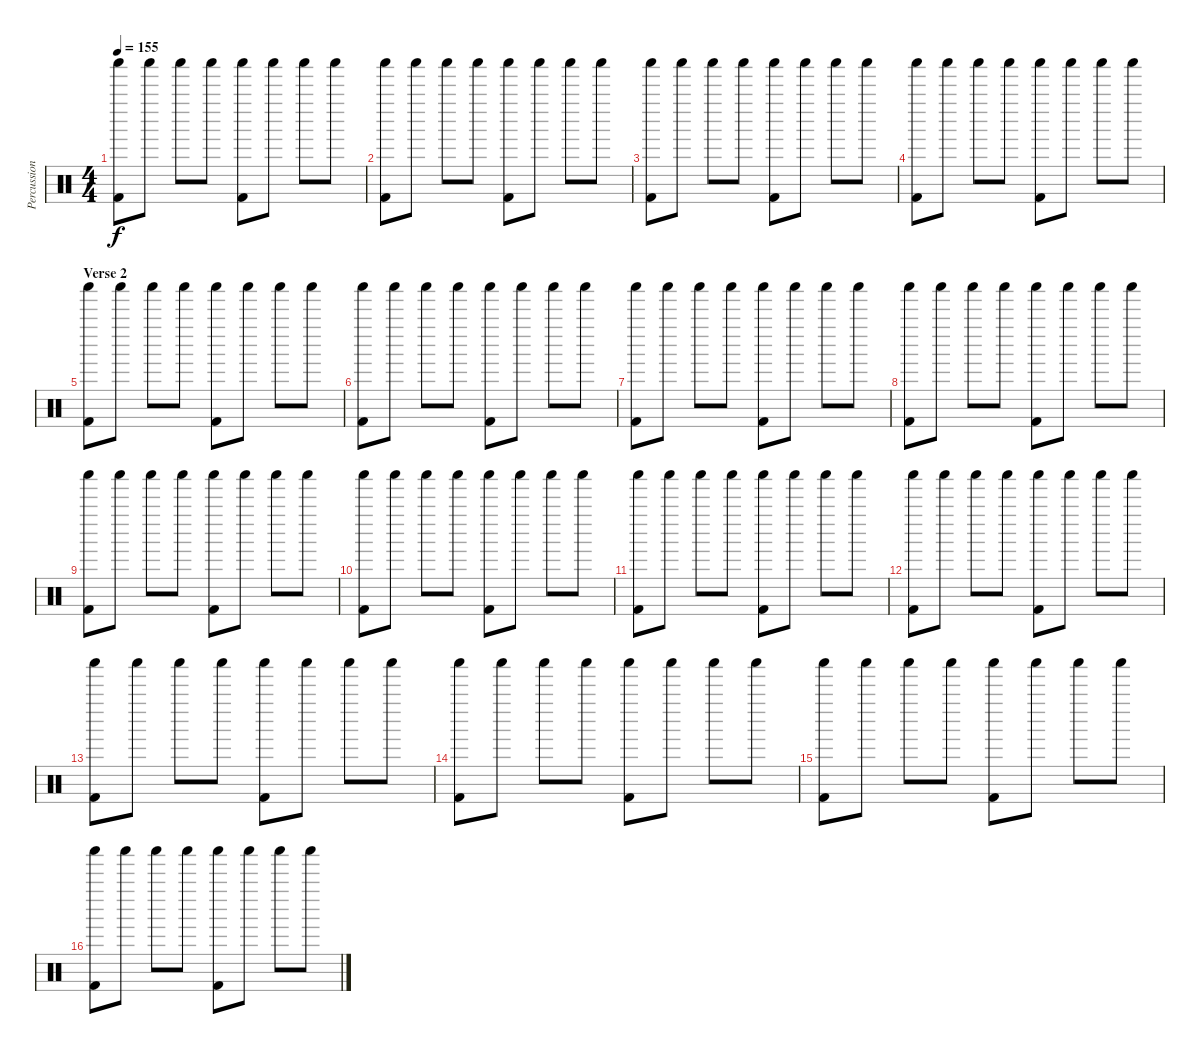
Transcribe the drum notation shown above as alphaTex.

\track ("Percussion" "Percussion") {instrument percussion}
\staff {score}
\articulation defaults
\ts (4 4)
\tempo 155
\clef neutral
\ks c
("Kick (hit) 2" "Shaker (hit)").8{dy f} "Shaker (hit)".8 "Shaker (hit)".8 "Shaker (hit)".8 ("Kick (hit) 2" "Shaker (hit)").8 "Shaker (hit)".8 "Shaker (hit)".8 "Shaker (hit)".8 |
("Kick (hit) 2" "Shaker (hit)").8 "Shaker (hit)".8 "Shaker (hit)".8 "Shaker (hit)".8 ("Kick (hit) 2" "Shaker (hit)").8 "Shaker (hit)".8 "Shaker (hit)".8 "Shaker (hit)".8 |
("Kick (hit) 2" "Shaker (hit)").8 "Shaker (hit)".8 "Shaker (hit)".8 "Shaker (hit)".8 ("Kick (hit) 2" "Shaker (hit)").8 "Shaker (hit)".8 "Shaker (hit)".8 "Shaker (hit)".8 |
("Kick (hit) 2" "Shaker (hit)").8 "Shaker (hit)".8 "Shaker (hit)".8 "Shaker (hit)".8 ("Kick (hit) 2" "Shaker (hit)").8 "Shaker (hit)".8 "Shaker (hit)".8 "Shaker (hit)".8 |
\section ("" "Verse 2")
("Kick (hit) 2" "Shaker (hit)").8 "Shaker (hit)".8 "Shaker (hit)".8 "Shaker (hit)".8 ("Kick (hit) 2" "Shaker (hit)").8 "Shaker (hit)".8 "Shaker (hit)".8 "Shaker (hit)".8 |
("Kick (hit) 2" "Shaker (hit)").8 "Shaker (hit)".8 "Shaker (hit)".8 "Shaker (hit)".8 ("Kick (hit) 2" "Shaker (hit)").8 "Shaker (hit)".8 "Shaker (hit)".8 "Shaker (hit)".8 |
("Kick (hit) 2" "Shaker (hit)").8 "Shaker (hit)".8 "Shaker (hit)".8 "Shaker (hit)".8 ("Kick (hit) 2" "Shaker (hit)").8 "Shaker (hit)".8 "Shaker (hit)".8 "Shaker (hit)".8 |
("Kick (hit) 2" "Shaker (hit)").8 "Shaker (hit)".8 "Shaker (hit)".8 "Shaker (hit)".8 ("Kick (hit) 2" "Shaker (hit)").8 "Shaker (hit)".8 "Shaker (hit)".8 "Shaker (hit)".8 |
("Kick (hit) 2" "Shaker (hit)").8 "Shaker (hit)".8 "Shaker (hit)".8 "Shaker (hit)".8 ("Kick (hit) 2" "Shaker (hit)").8 "Shaker (hit)".8 "Shaker (hit)".8 "Shaker (hit)".8 |
("Kick (hit) 2" "Shaker (hit)").8 "Shaker (hit)".8 "Shaker (hit)".8 "Shaker (hit)".8 ("Kick (hit) 2" "Shaker (hit)").8 "Shaker (hit)".8 "Shaker (hit)".8 "Shaker (hit)".8 |
("Kick (hit) 2" "Shaker (hit)").8 "Shaker (hit)".8 "Shaker (hit)".8 "Shaker (hit)".8 ("Kick (hit) 2" "Shaker (hit)").8 "Shaker (hit)".8 "Shaker (hit)".8 "Shaker (hit)".8 |
("Kick (hit) 2" "Shaker (hit)").8 "Shaker (hit)".8 "Shaker (hit)".8 "Shaker (hit)".8 ("Kick (hit) 2" "Shaker (hit)").8 "Shaker (hit)".8 "Shaker (hit)".8 "Shaker (hit)".8 |
("Kick (hit) 2" "Shaker (hit)").8 "Shaker (hit)".8 "Shaker (hit)".8 "Shaker (hit)".8 ("Kick (hit) 2" "Shaker (hit)").8 "Shaker (hit)".8 "Shaker (hit)".8 "Shaker (hit)".8 |
("Kick (hit) 2" "Shaker (hit)").8 "Shaker (hit)".8 "Shaker (hit)".8 "Shaker (hit)".8 ("Kick (hit) 2" "Shaker (hit)").8 "Shaker (hit)".8 "Shaker (hit)".8 "Shaker (hit)".8 |
("Kick (hit) 2" "Shaker (hit)").8 "Shaker (hit)".8 "Shaker (hit)".8 "Shaker (hit)".8 ("Kick (hit) 2" "Shaker (hit)").8 "Shaker (hit)".8 "Shaker (hit)".8 "Shaker (hit)".8 |
("Kick (hit) 2" "Shaker (hit)").8 "Shaker (hit)".8 "Shaker (hit)".8 "Shaker (hit)".8 ("Kick (hit) 2" "Shaker (hit)").8 "Shaker (hit)".8 "Shaker (hit)".8 "Shaker (hit)".8
